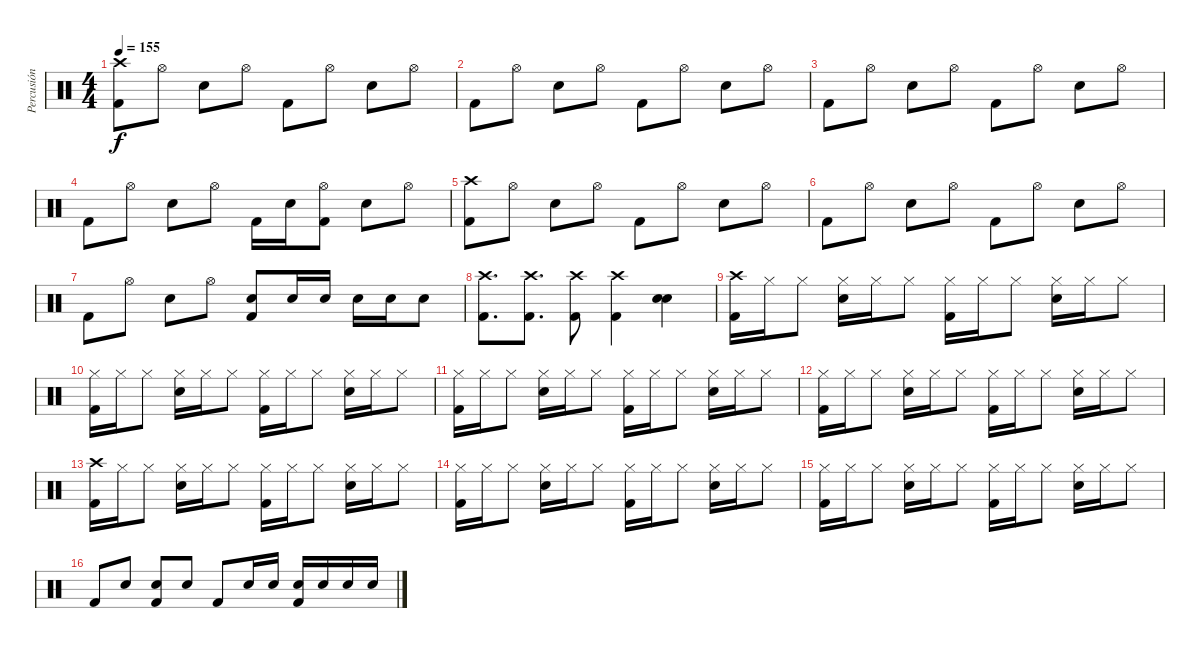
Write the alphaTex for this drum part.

\track ("Percusión" "Percusión") {instrument percussion}
\staff {score}
\articulation defaults
\ts (4 4)
\tempo 155
\clef neutral
\ks c
("Crash high (hit)" "Kick (hit) 2").8{dy f} "Hi-Hat (open)".8 "Electric Snare (hit)".8 "Hi-Hat (open)".8 "Kick (hit) 2".8 "Hi-Hat (open)".8 "Electric Snare (hit)".8 "Hi-Hat (open)".8 |
"Kick (hit) 2".8 "Hi-Hat (open)".8 "Electric Snare (hit)".8 "Hi-Hat (open)".8 "Kick (hit) 2".8 "Hi-Hat (open)".8 "Electric Snare (hit)".8 "Hi-Hat (open)".8 |
"Kick (hit) 2".8 "Hi-Hat (open)".8 "Electric Snare (hit)".8 "Hi-Hat (open)".8 "Kick (hit) 2".8 "Hi-Hat (open)".8 "Electric Snare (hit)".8 "Hi-Hat (open)".8 |
"Kick (hit) 2".8 "Hi-Hat (open)".8 "Electric Snare (hit)".8 "Hi-Hat (open)".8 "Kick (hit) 2".16 "Electric Snare (hit)".16 ("Hi-Hat (open)" "Kick (hit) 2").8 "Electric Snare (hit)".8 "Hi-Hat (open)".8 |
("Crash high (hit)" "Kick (hit) 2").8 "Hi-Hat (open)".8 "Electric Snare (hit)".8 "Hi-Hat (open)".8 "Kick (hit) 2".8 "Hi-Hat (open)".8 "Electric Snare (hit)".8 "Hi-Hat (open)".8 |
"Kick (hit) 2".8 "Hi-Hat (open)".8 "Electric Snare (hit)".8 "Hi-Hat (open)".8 "Kick (hit) 2".8 "Hi-Hat (open)".8 "Electric Snare (hit)".8 "Hi-Hat (open)".8 |
"Kick (hit) 2".8 "Hi-Hat (open)".8 "Electric Snare (hit)".8 "Hi-Hat (open)".8 ("Electric Snare (hit)" "Kick (hit) 2").8 "Electric Snare (hit)".16 "Electric Snare (hit)".16 "Electric Snare (hit)".16 "Electric Snare (hit)".16 "Electric Snare (hit)".8 |
("Crash high (hit)" "Kick (hit) 2").8{d} ("Crash high (hit)" "Kick (hit) 2").8{d} ("Crash high (hit)" "Kick (hit) 2").8 ("Crash high (hit)" "Kick (hit) 2").4 ("Electric Snare (hit)" "Electric Snare (hit)").4 |
("Crash high (hit)" "Kick (hit) 2").16 "Hi-Hat (closed)".16 "Hi-Hat (closed)".8 ("Hi-Hat (closed)" "Electric Snare (hit)").16 "Hi-Hat (closed)".16 "Hi-Hat (closed)".8 ("Hi-Hat (closed)" "Kick (hit) 2").16 "Hi-Hat (closed)".16 "Hi-Hat (closed)".8 ("Hi-Hat (closed)" "Electric Snare (hit)").16 "Hi-Hat (closed)".16 "Hi-Hat (closed)".8 |
("Hi-Hat (closed)" "Kick (hit) 2").16 "Hi-Hat (closed)".16 "Hi-Hat (closed)".8 ("Hi-Hat (closed)" "Electric Snare (hit)").16 "Hi-Hat (closed)".16 "Hi-Hat (closed)".8 ("Hi-Hat (closed)" "Kick (hit) 2").16 "Hi-Hat (closed)".16 "Hi-Hat (closed)".8 ("Hi-Hat (closed)" "Electric Snare (hit)").16 "Hi-Hat (closed)".16 "Hi-Hat (closed)".8 |
("Hi-Hat (closed)" "Kick (hit) 2").16 "Hi-Hat (closed)".16 "Hi-Hat (closed)".8 ("Hi-Hat (closed)" "Electric Snare (hit)").16 "Hi-Hat (closed)".16 "Hi-Hat (closed)".8 ("Hi-Hat (closed)" "Kick (hit) 2").16 "Hi-Hat (closed)".16 "Hi-Hat (closed)".8 ("Hi-Hat (closed)" "Electric Snare (hit)").16 "Hi-Hat (closed)".16 "Hi-Hat (closed)".8 |
("Hi-Hat (closed)" "Kick (hit) 2").16 "Hi-Hat (closed)".16 "Hi-Hat (closed)".8 ("Hi-Hat (closed)" "Electric Snare (hit)").16 "Hi-Hat (closed)".16 "Hi-Hat (closed)".8 ("Hi-Hat (closed)" "Kick (hit) 2").16 "Hi-Hat (closed)".16 "Hi-Hat (closed)".8 ("Hi-Hat (closed)" "Electric Snare (hit)").16 "Hi-Hat (closed)".16 "Hi-Hat (closed)".8 |
("Crash high (hit)" "Kick (hit) 2").16 "Hi-Hat (closed)".16 "Hi-Hat (closed)".8 ("Hi-Hat (closed)" "Electric Snare (hit)").16 "Hi-Hat (closed)".16 "Hi-Hat (closed)".8 ("Hi-Hat (closed)" "Kick (hit) 2").16 "Hi-Hat (closed)".16 "Hi-Hat (closed)".8 ("Hi-Hat (closed)" "Electric Snare (hit)").16 "Hi-Hat (closed)".16 "Hi-Hat (closed)".8 |
("Hi-Hat (closed)" "Kick (hit) 2").16 "Hi-Hat (closed)".16 "Hi-Hat (closed)".8 ("Hi-Hat (closed)" "Electric Snare (hit)").16 "Hi-Hat (closed)".16 "Hi-Hat (closed)".8 ("Hi-Hat (closed)" "Kick (hit) 2").16 "Hi-Hat (closed)".16 "Hi-Hat (closed)".8 ("Hi-Hat (closed)" "Electric Snare (hit)").16 "Hi-Hat (closed)".16 "Hi-Hat (closed)".8 |
("Hi-Hat (closed)" "Kick (hit) 2").16 "Hi-Hat (closed)".16 "Hi-Hat (closed)".8 ("Hi-Hat (closed)" "Electric Snare (hit)").16 "Hi-Hat (closed)".16 "Hi-Hat (closed)".8 ("Hi-Hat (closed)" "Kick (hit) 2").16 "Hi-Hat (closed)".16 "Hi-Hat (closed)".8 ("Hi-Hat (closed)" "Electric Snare (hit)").16 "Hi-Hat (closed)".16 "Hi-Hat (closed)".8 |
"Kick (hit) 2".8 "Electric Snare (hit)".8 ("Electric Snare (hit)" "Kick (hit) 2").8 "Electric Snare (hit)".8 "Kick (hit) 2".8 "Electric Snare (hit)".16 "Electric Snare (hit)".16 ("Electric Snare (hit)" "Kick (hit) 2").16 "Electric Snare (hit)".16 "Electric Snare (hit)".16 "Electric Snare (hit)".16
